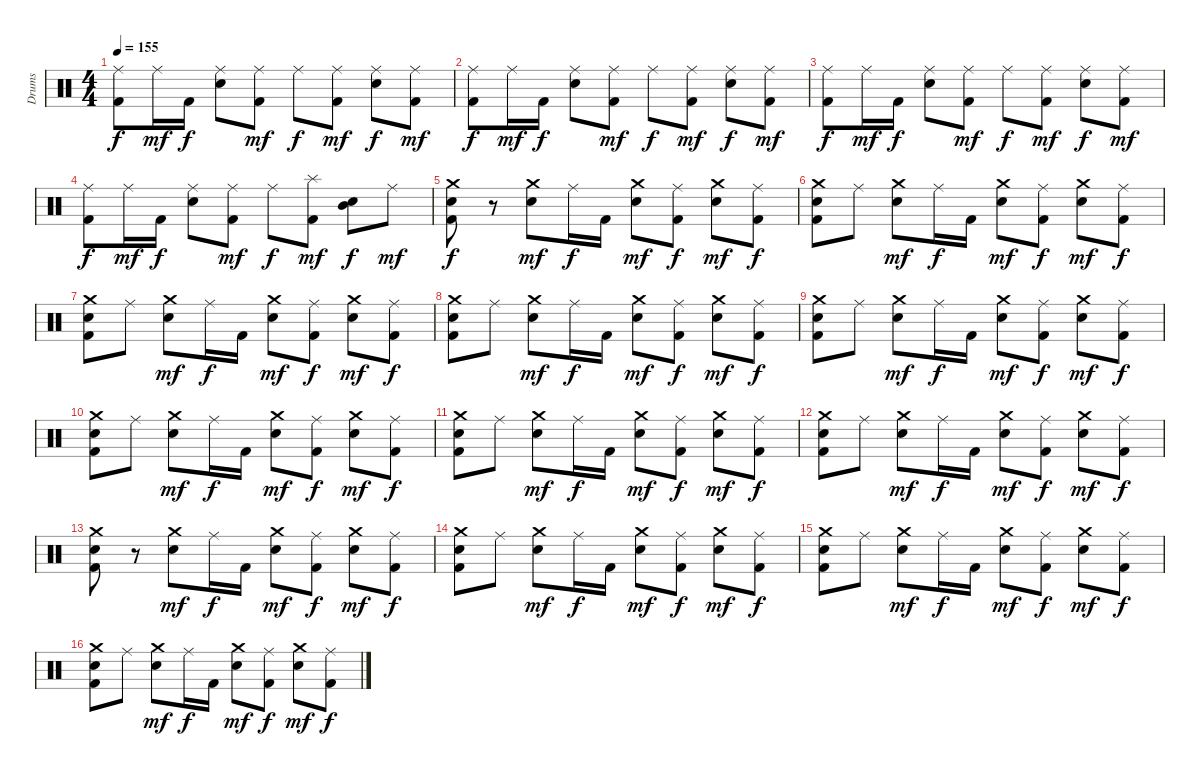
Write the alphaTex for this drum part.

\track ("Drums" "Drums") {instrument percussion}
\staff {score}
\articulation defaults
\ts (4 4)
\tempo 155
\clef neutral
\ks c
("Kick (hit) 2" "Ride (middle)").8{dy f} "Ride (middle)".16{dy mf} "Kick (hit) 2".16{dy f} ("Snare (hit) 2" "Ride (middle)").8 ("Ride (middle)" "Kick (hit) 2").8{dy mf} "Ride (middle)".8{dy f} ("Kick (hit) 2" "Ride (middle)").8{dy mf} ("Snare (hit) 2" "Ride (middle)").8{dy f} ("Ride (middle)" "Kick (hit) 2").8{dy mf} |
("Kick (hit) 2" "Ride (middle)").8{dy f} "Ride (middle)".16{dy mf} "Kick (hit) 2".16{dy f} ("Snare (hit) 2" "Ride (middle)").8 ("Ride (middle)" "Kick (hit) 2").8{dy mf} "Ride (middle)".8{dy f} ("Kick (hit) 2" "Ride (middle)").8{dy mf} ("Snare (hit) 2" "Ride (middle)").8{dy f} ("Ride (middle)" "Kick (hit) 2").8{dy mf} |
("Kick (hit) 2" "Ride (middle)").8{dy f} "Ride (middle)".16{dy mf} "Kick (hit) 2".16{dy f} ("Snare (hit) 2" "Ride (middle)").8 ("Ride (middle)" "Kick (hit) 2").8{dy mf} "Ride (middle)".8{dy f} ("Kick (hit) 2" "Ride (middle)").8{dy mf} ("Snare (hit) 2" "Ride (middle)").8{dy f} ("Ride (middle)" "Kick (hit) 2").8{dy mf} |
("Kick (hit) 2" "Ride (middle)").8{dy f} "Ride (middle)".16{dy mf} "Kick (hit) 2".16{dy f} ("Snare (hit) 2" "Ride (middle)").8 ("Ride (middle)" "Kick (hit) 2").8{dy mf} "Ride (middle)".8{dy f} ("Kick (hit) 2" "Splash (hit)").8{dy mf} ("Snare (hit) 2" "Mid Tom (hit)").8{dy f} "Ride (middle)".8{dy mf} |
("Crash medium (hit)" "Snare (hit) 2" "Kick (hit) 2").8{dy f} r.8 ("Crash medium (hit)" "Snare (hit) 2").8{dy mf} "Ride (middle)".16{dy f} "Kick (hit) 2".16 ("Crash medium (hit)" "Snare (hit) 2").8{dy mf} ("Ride (middle)" "Kick (hit) 2").8{dy f} ("Crash medium (hit)" "Snare (hit) 2").8{dy mf} ("Ride (middle)" "Kick (hit) 2").8{dy f} |
("Crash medium (hit)" "Snare (hit) 2" "Kick (hit) 2").8 "Ride (middle)".8 ("Crash medium (hit)" "Snare (hit) 2").8{dy mf} "Ride (middle)".16{dy f} "Kick (hit) 2".16 ("Crash medium (hit)" "Snare (hit) 2").8{dy mf} ("Ride (middle)" "Kick (hit) 2").8{dy f} ("Crash medium (hit)" "Snare (hit) 2").8{dy mf} ("Ride (middle)" "Kick (hit) 2").8{dy f} |
("Crash medium (hit)" "Snare (hit) 2" "Kick (hit) 2").8 "Ride (middle)".8 ("Crash medium (hit)" "Snare (hit) 2").8{dy mf} "Ride (middle)".16{dy f} "Kick (hit) 2".16 ("Crash medium (hit)" "Snare (hit) 2").8{dy mf} ("Ride (middle)" "Kick (hit) 2").8{dy f} ("Crash medium (hit)" "Snare (hit) 2").8{dy mf} ("Ride (middle)" "Kick (hit) 2").8{dy f} |
("Crash medium (hit)" "Snare (hit) 2" "Kick (hit) 2").8 "Ride (middle)".8 ("Crash medium (hit)" "Snare (hit) 2").8{dy mf} "Ride (middle)".16{dy f} "Kick (hit) 2".16 ("Crash medium (hit)" "Snare (hit) 2").8{dy mf} ("Ride (middle)" "Kick (hit) 2").8{dy f} ("Crash medium (hit)" "Snare (hit) 2").8{dy mf} ("Ride (middle)" "Kick (hit) 2").8{dy f} |
("Crash medium (hit)" "Snare (hit) 2" "Kick (hit) 2").8 "Ride (middle)".8 ("Crash medium (hit)" "Snare (hit) 2").8{dy mf} "Ride (middle)".16{dy f} "Kick (hit) 2".16 ("Crash medium (hit)" "Snare (hit) 2").8{dy mf} ("Ride (middle)" "Kick (hit) 2").8{dy f} ("Crash medium (hit)" "Snare (hit) 2").8{dy mf} ("Ride (middle)" "Kick (hit) 2").8{dy f} |
("Crash medium (hit)" "Snare (hit) 2" "Kick (hit) 2").8 "Ride (middle)".8 ("Crash medium (hit)" "Snare (hit) 2").8{dy mf} "Ride (middle)".16{dy f} "Kick (hit) 2".16 ("Crash medium (hit)" "Snare (hit) 2").8{dy mf} ("Ride (middle)" "Kick (hit) 2").8{dy f} ("Crash medium (hit)" "Snare (hit) 2").8{dy mf} ("Ride (middle)" "Kick (hit) 2").8{dy f} |
("Crash medium (hit)" "Snare (hit) 2" "Kick (hit) 2").8 "Ride (middle)".8 ("Crash medium (hit)" "Snare (hit) 2").8{dy mf} "Ride (middle)".16{dy f} "Kick (hit) 2".16 ("Crash medium (hit)" "Snare (hit) 2").8{dy mf} ("Ride (middle)" "Kick (hit) 2").8{dy f} ("Crash medium (hit)" "Snare (hit) 2").8{dy mf} ("Ride (middle)" "Kick (hit) 2").8{dy f} |
("Crash medium (hit)" "Snare (hit) 2" "Kick (hit) 2").8 "Ride (middle)".8 ("Crash medium (hit)" "Snare (hit) 2").8{dy mf} "Ride (middle)".16{dy f} "Kick (hit) 2".16 ("Crash medium (hit)" "Snare (hit) 2").8{dy mf} ("Ride (middle)" "Kick (hit) 2").8{dy f} ("Crash medium (hit)" "Snare (hit) 2").8{dy mf} ("Ride (middle)" "Kick (hit) 2").8{dy f} |
("Crash medium (hit)" "Snare (hit) 2" "Kick (hit) 2").8 r.8 ("Crash medium (hit)" "Snare (hit) 2").8{dy mf} "Ride (middle)".16{dy f} "Kick (hit) 2".16 ("Crash medium (hit)" "Snare (hit) 2").8{dy mf} ("Ride (middle)" "Kick (hit) 2").8{dy f} ("Crash medium (hit)" "Snare (hit) 2").8{dy mf} ("Ride (middle)" "Kick (hit) 2").8{dy f} |
("Crash medium (hit)" "Snare (hit) 2" "Kick (hit) 2").8 "Ride (middle)".8 ("Crash medium (hit)" "Snare (hit) 2").8{dy mf} "Ride (middle)".16{dy f} "Kick (hit) 2".16 ("Crash medium (hit)" "Snare (hit) 2").8{dy mf} ("Ride (middle)" "Kick (hit) 2").8{dy f} ("Crash medium (hit)" "Snare (hit) 2").8{dy mf} ("Ride (middle)" "Kick (hit) 2").8{dy f} |
("Crash medium (hit)" "Snare (hit) 2" "Kick (hit) 2").8 "Ride (middle)".8 ("Crash medium (hit)" "Snare (hit) 2").8{dy mf} "Ride (middle)".16{dy f} "Kick (hit) 2".16 ("Crash medium (hit)" "Snare (hit) 2").8{dy mf} ("Ride (middle)" "Kick (hit) 2").8{dy f} ("Crash medium (hit)" "Snare (hit) 2").8{dy mf} ("Ride (middle)" "Kick (hit) 2").8{dy f} |
("Crash medium (hit)" "Snare (hit) 2" "Kick (hit) 2").8 "Ride (middle)".8 ("Crash medium (hit)" "Snare (hit) 2").8{dy mf} "Ride (middle)".16{dy f} "Kick (hit) 2".16 ("Crash medium (hit)" "Snare (hit) 2").8{dy mf} ("Ride (middle)" "Kick (hit) 2").8{dy f} ("Crash medium (hit)" "Snare (hit) 2").8{dy mf} ("Ride (middle)" "Kick (hit) 2").8{dy f}
